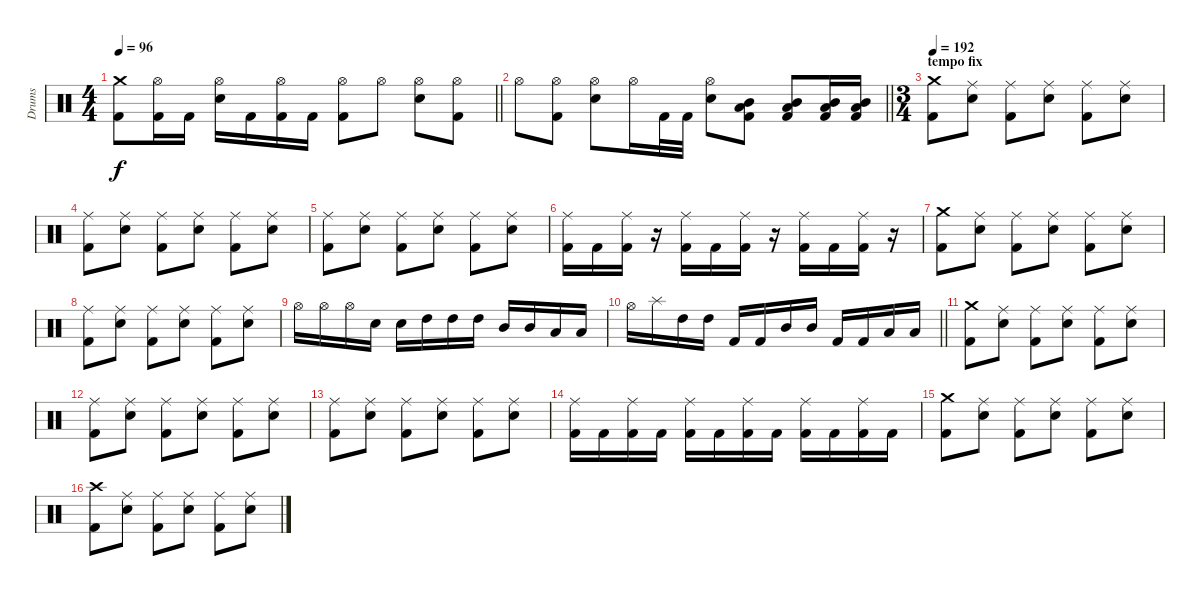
\track ("Drums" "Drums") {instrument percussion}
\staff {score}
\articulation defaults
\ts (4 4)
\tempo 96
\clef neutral
\barLineRight lightlight
\ks c
("Crash medium (hit)" "Kick (hit) 2").8{dy f} ("Hi-Hat (open)" "Kick (hit) 2").16 "Kick (hit) 2".16 ("Hi-Hat (open)" "Electric Snare (hit)").16 "Kick (hit) 2".16 ("Hi-Hat (open)" "Kick (hit) 2").16 "Kick (hit) 2".16 ("Hi-Hat (open)" "Kick (hit) 2").8 "Hi-Hat (open)".8 ("Hi-Hat (open)" "Electric Snare (hit)").8 ("Hi-Hat (open)" "Kick (hit) 2").8 |
\barLineRight lightlight "Hi-Hat (open)".8
("Hi-Hat (open)" "Kick (hit) 2").8 ("Hi-Hat (open)" "Electric Snare (hit)").8 "Hi-Hat (open)".16 "Kick (hit) 2".32 "Kick (hit) 2".32 ("Hi-Hat (open)" "Electric Snare (hit)").8 ("Mid Tom (hit)" "Low Tom (hit)" "Kick (hit) 2").8 ("Mid Tom (hit)" "Low Tom (hit)" "Kick (hit) 2").8 ("Mid Tom (hit)" "Low Tom (hit)" "Kick (hit) 2").16 ("Mid Tom (hit)" "Low Tom (hit)" "Kick (hit) 2").16 |
\ts (3 4)
\section ("" "tempo fix")
\tempo 192
("Crash medium (hit)" "Kick (hit) 2").8 ("Ride (middle)" "Electric Snare (hit)").8 ("Ride (middle)" "Kick (hit) 2").8 ("Ride (middle)" "Electric Snare (hit)").8 ("Ride (middle)" "Kick (hit) 2").8 ("Ride (middle)" "Electric Snare (hit)").8 |
("Ride (middle)" "Kick (hit) 2").8 ("Ride (middle)" "Electric Snare (hit)").8 ("Ride (middle)" "Kick (hit) 2").8 ("Ride (middle)" "Electric Snare (hit)").8 ("Ride (middle)" "Kick (hit) 2").8 ("Ride (middle)" "Electric Snare (hit)").8 |
("Ride (middle)" "Kick (hit) 2").8 ("Ride (middle)" "Electric Snare (hit)").8 ("Ride (middle)" "Kick (hit) 2").8 ("Ride (middle)" "Electric Snare (hit)").8 ("Ride (middle)" "Kick (hit) 2").8 ("Ride (middle)" "Electric Snare (hit)").8 |
("Ride (middle)" "Kick (hit) 2").16 "Kick (hit) 2".16 ("Ride (middle)" "Kick (hit) 2").16 r.16 ("Ride (middle)" "Kick (hit) 2").16 "Kick (hit) 2".16 ("Ride (middle)" "Kick (hit) 2").16 r.16 ("Ride (middle)" "Kick (hit) 2").16 "Kick (hit) 2".16 ("Ride (middle)" "Kick (hit) 2").16 r.16 |
("Crash medium (hit)" "Kick (hit) 2").8 ("Ride (middle)" "Electric Snare (hit)").8 ("Ride (middle)" "Kick (hit) 2").8 ("Ride (middle)" "Electric Snare (hit)").8 ("Ride (middle)" "Kick (hit) 2").8 ("Ride (middle)" "Electric Snare (hit)").8 |
("Ride (middle)" "Kick (hit) 2").8 ("Ride (middle)" "Electric Snare (hit)").8 ("Ride (middle)" "Kick (hit) 2").8 ("Ride (middle)" "Electric Snare (hit)").8 ("Ride (middle)" "Kick (hit) 2").8 ("Ride (middle)" "Electric Snare (hit)").8 |
"Hi-Hat (open)".16 "Hi-Hat (open)".16 "Hi-Hat (open)".16 "Electric Snare (hit)".16 "Electric Snare (hit)".16 "High Tom (hit)".16 "High Tom (hit)".16 "High Tom (hit)".16 "Mid Tom (hit)".16 "Mid Tom (hit)".16 "Low Tom (hit)".16 "Low Tom (hit)".16 |
\barLineRight lightlight "Hi-Hat (open)".16 "Splash (hit)".16 "High Tom (hit)".16 "High Tom (hit)".16 "Kick (hit) 2".16 "Kick (hit) 2".16 "Mid Tom (hit)".16 "Mid Tom (hit)".16 "Kick (hit) 2".16 "Kick (hit) 2".16 "Low Tom (hit)".16 "Low Tom (hit)".16
|
("Crash medium (hit)" "Kick (hit) 2").8 ("Ride (middle)" "Electric Snare (hit)").8 ("Ride (middle)" "Kick (hit) 2").8 ("Ride (middle)" "Electric Snare (hit)").8 ("Ride (middle)" "Kick (hit) 2").8 ("Ride (middle)" "Electric Snare (hit)").8 |
("Ride (middle)" "Kick (hit) 2").8 ("Ride (middle)" "Electric Snare (hit)").8 ("Ride (middle)" "Kick (hit) 2").8 ("Ride (middle)" "Electric Snare (hit)").8 ("Ride (middle)" "Kick (hit) 2").8 ("Ride (middle)" "Electric Snare (hit)").8 |
("Ride (middle)" "Kick (hit) 2").8 ("Ride (middle)" "Electric Snare (hit)").8 ("Ride (middle)" "Kick (hit) 2").8 ("Ride (middle)" "Electric Snare (hit)").8 ("Ride (middle)" "Kick (hit) 2").8 ("Ride (middle)" "Electric Snare (hit)").8 |
("Ride (middle)" "Kick (hit) 2").16 "Kick (hit) 2".16 ("Ride (middle)" "Kick (hit) 2").16 "Kick (hit) 2".16 ("Ride (middle)" "Kick (hit) 2").16 "Kick (hit) 2".16 ("Ride (middle)" "Kick (hit) 2").16 "Kick (hit) 2".16 ("Ride (middle)" "Kick (hit) 2").16 "Kick (hit) 2".16 ("Ride (middle)" "Kick (hit) 2").16 "Kick (hit) 2".16 |
("Crash medium (hit)" "Kick (hit) 2").8 ("Ride (middle)" "Electric Snare (hit)").8 ("Ride (middle)" "Kick (hit) 2").8 ("Ride (middle)" "Electric Snare (hit)").8 ("Ride (middle)" "Kick (hit) 2").8 ("Ride (middle)" "Electric Snare (hit)").8 |
("Crash high (hit)" "Kick (hit) 2").8 ("Ride (middle)" "Electric Snare (hit)").8 ("Ride (middle)" "Kick (hit) 2").8 ("Ride (middle)" "Electric Snare (hit)").8 ("Ride (middle)" "Kick (hit) 2").8 ("Ride (middle)" "Electric Snare (hit)").8
